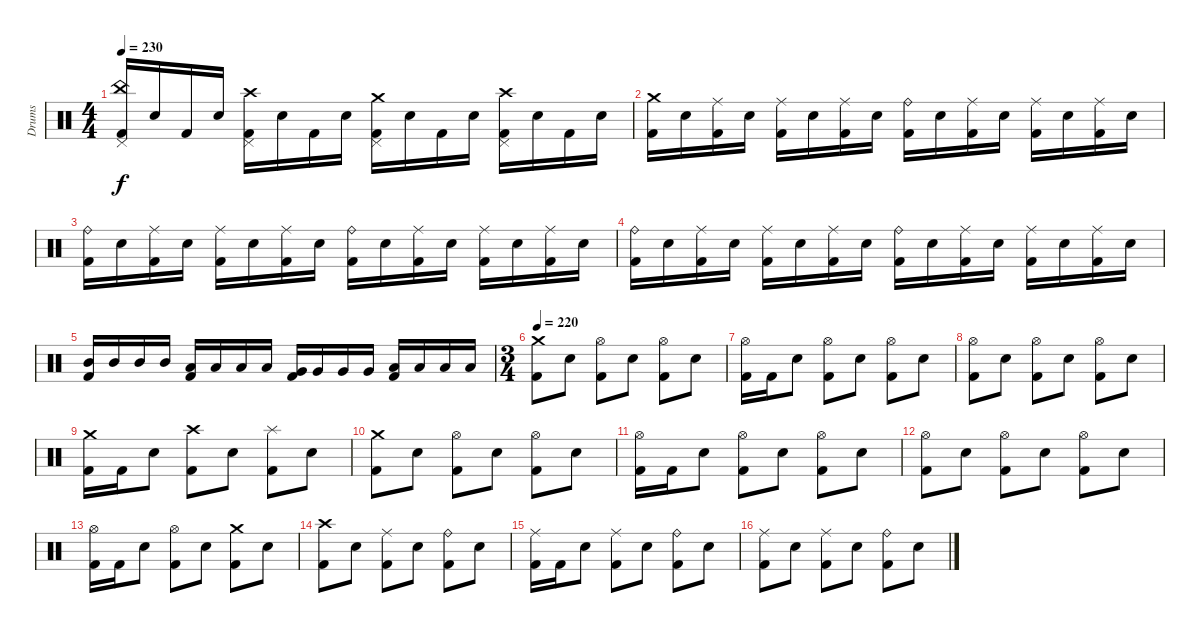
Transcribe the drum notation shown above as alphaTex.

\track ("Drums" "Drums") {instrument percussion}
\staff {score}
\articulation defaults
\ts (4 4)
\tempo 230
\clef neutral
\ks c
("Pedal Hi-Hat (hit)" "China (hit)" "Kick (hit) 2").16{dy f} "Electric Snare (hit)".16 "Kick (hit) 2".16 "Electric Snare (hit)".16 ("Pedal Hi-Hat (hit)" "Crash high (hit)" "Kick (hit) 2").16 "Electric Snare (hit)".16 "Kick (hit) 2".16 "Electric Snare (hit)".16 ("Pedal Hi-Hat (hit)" "Crash medium (hit)" "Kick (hit) 2").16 "Electric Snare (hit)".16 "Kick (hit) 2".16 "Electric Snare (hit)".16 ("Pedal Hi-Hat (hit)" "Crash high (hit)" "Kick (hit) 2").16 "Electric Snare (hit)".16 "Kick (hit) 2".16 "Electric Snare (hit)".16 |
("Crash medium (hit)" "Kick (hit) 2").16 "Electric Snare (hit)".16 ("Ride (middle)" "Kick (hit) 2").16 "Electric Snare (hit)".16 ("Ride (middle)" "Kick (hit) 2").16 "Electric Snare (hit)".16 ("Ride (middle)" "Kick (hit) 2").16 "Electric Snare (hit)".16 ("Ride (bell)" "Kick (hit) 2").16 "Electric Snare (hit)".16 ("Ride (middle)" "Kick (hit) 2").16 "Electric Snare (hit)".16 ("Ride (middle)" "Kick (hit) 2").16 "Electric Snare (hit)".16 ("Ride (middle)" "Kick (hit) 2").16 "Electric Snare (hit)".16 |
("Ride (bell)" "Kick (hit) 2").16 "Electric Snare (hit)".16 ("Ride (middle)" "Kick (hit) 2").16 "Electric Snare (hit)".16 ("Ride (middle)" "Kick (hit) 2").16 "Electric Snare (hit)".16 ("Ride (middle)" "Kick (hit) 2").16 "Electric Snare (hit)".16 ("Ride (bell)" "Kick (hit) 2").16 "Electric Snare (hit)".16 ("Ride (middle)" "Kick (hit) 2").16 "Electric Snare (hit)".16 ("Ride (middle)" "Kick (hit) 2").16 "Electric Snare (hit)".16 ("Ride (middle)" "Kick (hit) 2").16 "Electric Snare (hit)".16 |
("Ride (bell)" "Kick (hit) 2").16 "Electric Snare (hit)".16 ("Ride (middle)" "Kick (hit) 2").16 "Electric Snare (hit)".16 ("Ride (middle)" "Kick (hit) 2").16 "Electric Snare (hit)".16 ("Ride (middle)" "Kick (hit) 2").16 "Electric Snare (hit)".16 ("Ride (bell)" "Kick (hit) 2").16 "Electric Snare (hit)".16 ("Ride (middle)" "Kick (hit) 2").16 "Electric Snare (hit)".16 ("Ride (middle)" "Kick (hit) 2").16 "Electric Snare (hit)".16 ("Ride (middle)" "Kick (hit) 2").16 "Electric Snare (hit)".16 |
("Mid Tom (hit)" "Kick (hit) 2").16 "Mid Tom (hit)".16 "Mid Tom (hit)".16 "Mid Tom (hit)".16 ("Low Tom (hit)" "Kick (hit) 2").16 "Low Tom (hit)".16 "Low Tom (hit)".16 "Low Tom (hit)".16 ("Very Low Tom (hit)" "Kick (hit) 2").16 "Very Low Tom (hit)".16 "Very Low Tom (hit)".16 "Very Low Tom (hit)".16 ("Low Floor Tom (hit)" "Kick (hit) 2").16 "Low Floor Tom (hit)".16 "Low Floor Tom (hit)".16 "Low Floor Tom (hit)".16 |
\ts (3 4)
\tempo 220
("Crash medium (hit)" "Kick (hit) 2").8 "Electric Snare (hit)".8 ("Hi-Hat (open)" "Kick (hit) 2").8 "Electric Snare (hit)".8 ("Hi-Hat (open)" "Kick (hit) 2").8 "Electric Snare (hit)".8 |
("Hi-Hat (open)" "Kick (hit) 2").16 "Kick (hit) 2".16 "Electric Snare (hit)".8 ("Hi-Hat (open)" "Kick (hit) 2").8 "Electric Snare (hit)".8 ("Hi-Hat (open)" "Kick (hit) 2").8 "Electric Snare (hit)".8 |
("Hi-Hat (open)" "Kick (hit) 2").8 "Electric Snare (hit)".8 ("Hi-Hat (open)" "Kick (hit) 2").8 "Electric Snare (hit)".8 ("Hi-Hat (open)" "Kick (hit) 2").8 "Electric Snare (hit)".8 |
("Crash medium (hit)" "Kick (hit) 2").16 "Kick (hit) 2".16 "Electric Snare (hit)".8 ("Crash high (hit)" "Kick (hit) 2").8 "Electric Snare (hit)".8 ("Splash (hit)" "Kick (hit) 2").8 "Electric Snare (hit)".8 |
("Crash medium (hit)" "Kick (hit) 2").8 "Electric Snare (hit)".8 ("Hi-Hat (open)" "Kick (hit) 2").8 "Electric Snare (hit)".8 ("Hi-Hat (open)" "Kick (hit) 2").8 "Electric Snare (hit)".8 |
("Hi-Hat (open)" "Kick (hit) 2").16 "Kick (hit) 2".16 "Electric Snare (hit)".8 ("Hi-Hat (open)" "Kick (hit) 2").8 "Electric Snare (hit)".8 ("Hi-Hat (open)" "Kick (hit) 2").8 "Electric Snare (hit)".8 |
("Hi-Hat (open)" "Kick (hit) 2").8 "Electric Snare (hit)".8 ("Hi-Hat (open)" "Kick (hit) 2").8 "Electric Snare (hit)".8 ("Hi-Hat (open)" "Kick (hit) 2").8 "Electric Snare (hit)".8 |
("Hi-Hat (open)" "Kick (hit) 2").16 "Kick (hit) 2".16 "Electric Snare (hit)".8 ("Hi-Hat (open)" "Kick (hit) 2").8 "Electric Snare (hit)".8 ("Crash medium (hit)" "Kick (hit) 2").8 "Electric Snare (hit)".8 |
("Crash high (hit)" "Kick (hit) 2").8 "Electric Snare (hit)".8 ("Ride (middle)" "Kick (hit) 2").8 "Electric Snare (hit)".8 ("Ride (bell)" "Kick (hit) 2").8 "Electric Snare (hit)".8 |
("Ride (middle)" "Kick (hit) 2").16 "Kick (hit) 2".16 "Electric Snare (hit)".8 ("Ride (middle)" "Kick (hit) 2").8 "Electric Snare (hit)".8 ("Ride (bell)" "Kick (hit) 2").8 "Electric Snare (hit)".8 |
("Ride (middle)" "Kick (hit) 2").8 "Electric Snare (hit)".8 ("Ride (middle)" "Kick (hit) 2").8 "Electric Snare (hit)".8 ("Ride (bell)" "Kick (hit) 2").8 "Electric Snare (hit)".8
